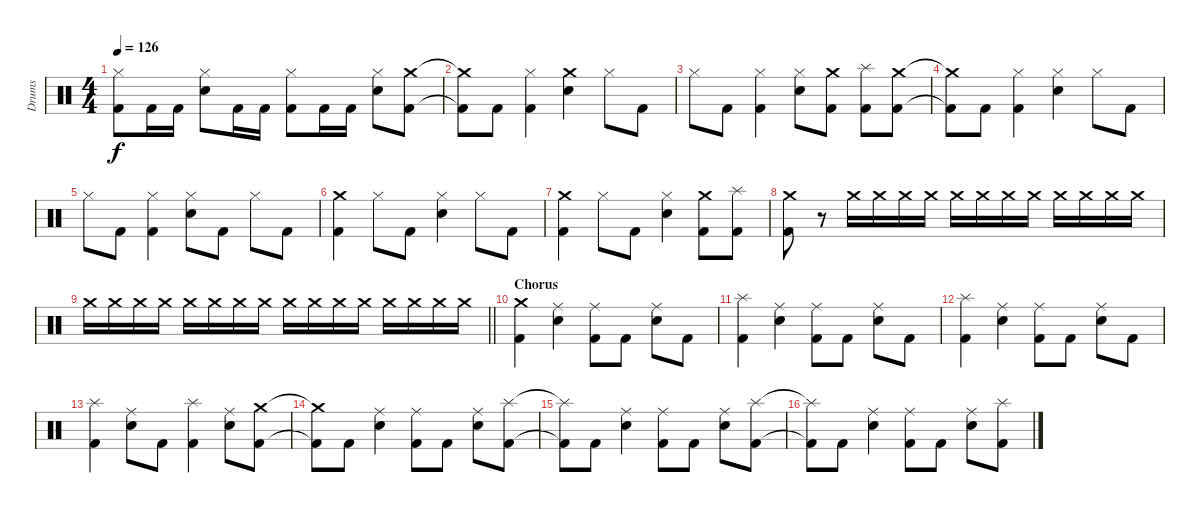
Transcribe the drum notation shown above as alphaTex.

\track ("Drums" "Drums") {instrument percussion}
\staff {score}
\articulation defaults
\ts (4 4)
\tempo 126
\clef neutral
\ks c
("Hi-Hat (closed)" "Kick (hit) 2"{t}).8{dy f} "Kick (hit) 2".16 "Kick (hit) 2".16 ("Hi-Hat (closed)" "Snare (hit) 2").8 "Kick (hit) 2".16 "Kick (hit) 2".16 ("Hi-Hat (closed)" "Kick (hit) 2").8 "Kick (hit) 2".16 "Kick (hit) 2".16 ("Hi-Hat (closed)" "Snare (hit) 2").8 ("Crash medium (hit)" "Kick (hit) 2").8 |
("Crash medium (hit)"{t} "Kick (hit) 2"{t}).8 "Kick (hit) 2".8 ("Hi-Hat (closed)" "Kick (hit) 2").4 ("Crash medium (hit)" "Snare (hit) 2").4 "Hi-Hat (closed)".8 "Kick (hit) 2".8 |
"Hi-Hat (closed)".8 "Kick (hit) 2".8 ("Hi-Hat (closed)" "Kick (hit) 2").4 ("Hi-Hat (closed)" "Snare (hit) 2").8 ("Crash medium (hit)" "Kick (hit) 2").8 ("Splash (hit)" "Kick (hit) 2").8 ("Crash medium (hit)" "Kick (hit) 2").8 |
("Crash medium (hit)"{t} "Kick (hit) 2"{t}).8 "Kick (hit) 2".8 ("Hi-Hat (closed)" "Kick (hit) 2").4 ("Hi-Hat (closed)" "Snare (hit) 2").4 "Hi-Hat (closed)".8 "Kick (hit) 2".8 |
"Hi-Hat (closed)".8 "Kick (hit) 2".8 ("Hi-Hat (closed)" "Kick (hit) 2").4 ("Hi-Hat (closed)" "Snare (hit) 2").8 "Kick (hit) 2".8 "Hi-Hat (closed)".8 "Kick (hit) 2".8 |
("Crash medium (hit)" "Kick (hit) 2").4 "Hi-Hat (closed)".8 "Kick (hit) 2".8 ("Hi-Hat (closed)" "Snare (hit) 2").4 "Hi-Hat (closed)".8 "Kick (hit) 2".8 |
("Crash medium (hit)" "Kick (hit) 2").4 "Hi-Hat (closed)".8 "Kick (hit) 2".8 ("Hi-Hat (closed)" "Snare (hit) 2").4 ("Crash medium (hit)" "Kick (hit) 2").8 ("Splash (hit)" "Kick (hit) 2").8 |
("Crash medium (hit)" "Kick (hit) 2").8 r.8{volume 0} "Crash medium (hit)".16{volume 16} "Crash medium (hit)".16 "Crash medium (hit)".16 "Crash medium (hit)".16 "Crash medium (hit)".16 "Crash medium (hit)".16 "Crash medium (hit)".16 "Crash medium (hit)".16 "Crash medium (hit)".16 "Crash medium (hit)".16 "Crash medium (hit)".16 "Crash medium (hit)".16 |
\barLineRight lightlight "Crash medium (hit)".16 "Crash medium (hit)".16 "Crash medium (hit)".16 "Crash medium (hit)".16 "Crash medium (hit)".16 "Crash medium (hit)".16 "Crash medium (hit)".16 "Crash medium (hit)".16 "Crash medium (hit)".16 "Crash medium (hit)".16 "Crash medium (hit)".16 "Crash medium (hit)".16 "Crash medium (hit)".16 "Crash medium (hit)".16 "Crash medium (hit)".16 "Crash medium (hit)".16
|
\section ("" "Chorus")
("Crash medium (hit)" "Kick (hit) 2").4{volume 14} ("Ride (middle)" "Snare (hit) 2").4 ("Ride (middle)" "Kick (hit) 2").8 "Kick (hit) 2".8 ("Ride (middle)" "Snare (hit) 2").8 "Kick (hit) 2".8 |
("Splash (hit)" "Kick (hit) 2").4 ("Ride (middle)" "Snare (hit) 2").4 ("Ride (middle)" "Kick (hit) 2").8 "Kick (hit) 2".8 ("Ride (middle)" "Snare (hit) 2").8 "Kick (hit) 2".8 |
("Splash (hit)" "Kick (hit) 2").4 ("Ride (middle)" "Snare (hit) 2").4 ("Ride (middle)" "Kick (hit) 2").8 "Kick (hit) 2".8 ("Ride (middle)" "Snare (hit) 2").8 "Kick (hit) 2".8 |
("Splash (hit)" "Kick (hit) 2").4 ("Ride (middle)" "Snare (hit) 2").8 "Kick (hit) 2".8 ("Splash (hit)" "Kick (hit) 2").4 ("Ride (middle)" "Snare (hit) 2").8 ("Crash medium (hit)" "Kick (hit) 2").8 |
("Crash medium (hit)"{t} "Kick (hit) 2"{t}).8 "Kick (hit) 2".8 ("Ride (middle)" "Snare (hit) 2").4 ("Ride (middle)" "Kick (hit) 2").8 "Kick (hit) 2".8 ("Ride (middle)" "Snare (hit) 2").8 ("Splash (hit)" "Kick (hit) 2").8 |
("Splash (hit)"{t} "Kick (hit) 2"{t}).8 "Kick (hit) 2".8 ("Ride (middle)" "Snare (hit) 2").4 ("Ride (middle)" "Kick (hit) 2").8 "Kick (hit) 2".8 ("Ride (middle)" "Snare (hit) 2").8 ("Splash (hit)" "Kick (hit) 2").8 |
("Splash (hit)"{t} "Kick (hit) 2"{t}).8 "Kick (hit) 2".8 ("Ride (middle)" "Snare (hit) 2").4 ("Ride (middle)" "Kick (hit) 2").8 "Kick (hit) 2".8 ("Ride (middle)" "Snare (hit) 2").8 ("Splash (hit)" "Kick (hit) 2").8
